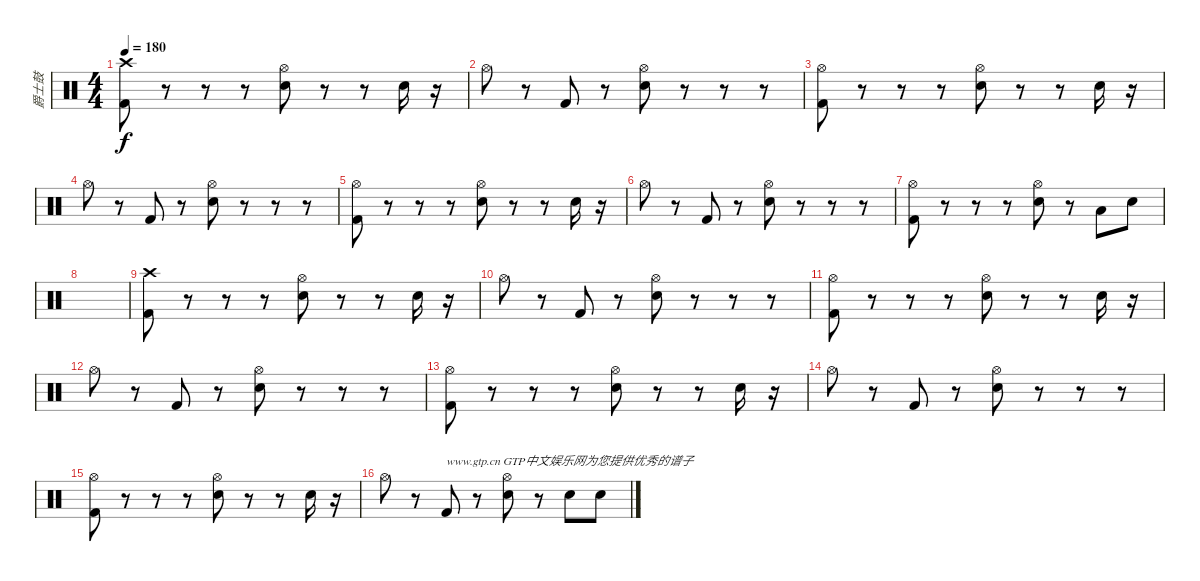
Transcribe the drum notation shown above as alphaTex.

\track ("爵士鼓" "爵士鼓") {instrument percussion}
\staff {score}
\articulation defaults
\ts (4 4)
\tempo 180
\clef neutral
\ks c
("Crash high (hit)" "Kick (hit) 2").8{dy f} r.8 r.8 r.8 ("Hi-Hat (open)" "Snare (hit) 2").8 r.8 r.8 "Snare (hit) 2".16 r.16 |
"Hi-Hat (open)".8 r.8 "Kick (hit) 2".8 r.8 ("Snare (hit) 2" "Hi-Hat (open)").8 r.8 r.8 r.8 |
("Hi-Hat (open)" "Kick (hit) 2").8 r.8 r.8 r.8 ("Hi-Hat (open)" "Snare (hit) 2").8 r.8 r.8 "Snare (hit) 2".16 r.16 |
"Hi-Hat (open)".8 r.8 "Kick (hit) 2".8 r.8 ("Snare (hit) 2" "Hi-Hat (open)").8 r.8 r.8 r.8 |
("Hi-Hat (open)" "Kick (hit) 2").8 r.8 r.8 r.8 ("Hi-Hat (open)" "Snare (hit) 2").8 r.8 r.8 "Snare (hit) 2".16 r.16 |
"Hi-Hat (open)".8 r.8 "Kick (hit) 2".8 r.8 ("Snare (hit) 2" "Hi-Hat (open)").8 r.8 r.8 r.8 |
("Kick (hit) 2" "Hi-Hat (open)").8 r.8 r.8 r.8 ("Hi-Hat (open)" "Snare (hit) 2").8 r.8 "Low Floor Tom (hit)".8 "Snare (hit) 2".8 |
|
("Crash high (hit)" "Kick (hit) 2").8 r.8 r.8 r.8 ("Hi-Hat (open)" "Snare (hit) 2").8 r.8 r.8 "Snare (hit) 2".16 r.16 |
"Hi-Hat (open)".8 r.8 "Kick (hit) 2".8 r.8 ("Snare (hit) 2" "Hi-Hat (open)").8 r.8 r.8 r.8 |
("Hi-Hat (open)" "Kick (hit) 2").8 r.8 r.8 r.8 ("Hi-Hat (open)" "Snare (hit) 2").8 r.8 r.8 "Snare (hit) 2".16 r.16 |
"Hi-Hat (open)".8 r.8 "Kick (hit) 2".8 r.8 ("Snare (hit) 2" "Hi-Hat (open)").8 r.8 r.8 r.8 |
("Hi-Hat (open)" "Kick (hit) 2").8 r.8 r.8 r.8 ("Hi-Hat (open)" "Snare (hit) 2").8 r.8 r.8 "Snare (hit) 2".16 r.16 |
"Hi-Hat (open)".8 r.8 "Kick (hit) 2".8 r.8 ("Snare (hit) 2" "Hi-Hat (open)").8 r.8 r.8 r.8 |
("Hi-Hat (open)" "Kick (hit) 2").8 r.8 r.8 r.8 ("Hi-Hat (open)" "Snare (hit) 2").8 r.8 r.8 "Snare (hit) 2".16 r.16 |
"Hi-Hat (open)".8 r.8 "Kick (hit) 2".8{txt "www.gtp.cn GTP中文娱乐网为您提供优秀的谱子"} r.8 ("Snare (hit) 2" "Hi-Hat (open)").8 r.8 "Snare (hit) 2".8 "Snare (hit) 2".8
